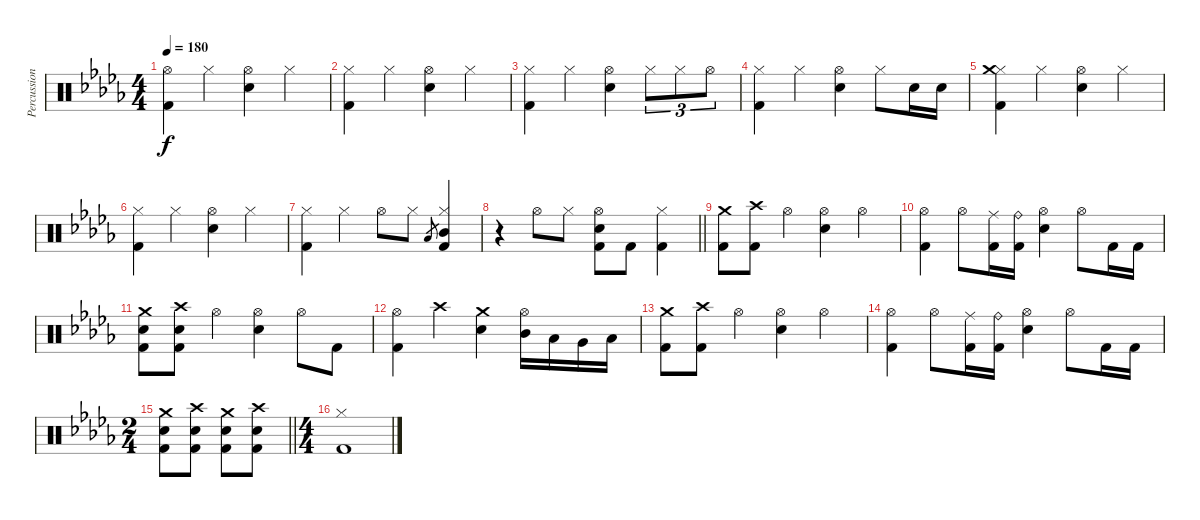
\track ("Percussions" "Percussion") {instrument percussion}
\staff {score}
\articulation defaults
\ts (4 4)
\tempo 180
\clef neutral
\ks bbminor
("Hi-Hat (open)" "Kick (hit) 2").4{dy f} "Hi-Hat (closed)".4 ("Hi-Hat (open)" "Electric Snare (hit)").4 "Hi-Hat (closed)".4 |
("Hi-Hat (closed)" "Kick (hit) 2").4 "Hi-Hat (closed)".4 ("Hi-Hat (open)" "Electric Snare (hit)").4 "Hi-Hat (closed)".4 |
("Hi-Hat (closed)" "Kick (hit) 2").4 "Hi-Hat (closed)".4 ("Hi-Hat (open)" "Electric Snare (hit)").4 "Hi-Hat (closed)".8{tu (3 2)} "Hi-Hat (closed)".8{tu (3 2)} "Hi-Hat (open)".8{tu (3 2)} |
("Hi-Hat (closed)" "Kick (hit) 2").4 "Hi-Hat (closed)".4 ("Hi-Hat (open)" "Electric Snare (hit)").4 "Hi-Hat (closed)".8 "Electric Snare (hit)".16 "Electric Snare (hit)".16 |
("Hi-Hat (closed)" "Crash medium (hit)" "Kick (hit) 2").4 "Hi-Hat (closed)".4 ("Hi-Hat (open)" "Electric Snare (hit)").4 "Hi-Hat (closed)".4 |
("Hi-Hat (closed)" "Kick (hit) 2").4 "Hi-Hat (closed)".4 ("Hi-Hat (open)" "Electric Snare (hit)").4 "Hi-Hat (closed)".4 |
("Hi-Hat (closed)" "Kick (hit) 2").4 "Hi-Hat (closed)".4 "Hi-Hat (open)".8 "Hi-Hat (closed)".8 "Low Tom (hit)".8{gr} ("Hi-Hat (closed)" "Mid Tom (hit)" "Kick (hit) 2").4 |
\barLineRight lightlight
r.4 "Hi-Hat (open)".8 "Hi-Hat (closed)".8 ("Hi-Hat (open)" "Electric Snare (hit)" "Kick (hit) 2").8 "Kick (hit) 2".8 ("Hi-Hat (closed)" "Kick (hit) 2").4 |
("Crash medium (hit)" "Kick (hit) 2").8 ("Crash high (hit)" "Kick (hit) 2").8 "Hi-Hat (open)".4 ("Hi-Hat (open)" "Electric Snare (hit)").4 "Hi-Hat (open)".4 |
("Hi-Hat (open)" "Kick (hit) 2").4 "Hi-Hat (open)".8 ("Ride (middle)" "Kick (hit) 2").16 ("Ride (bell)" "Kick (hit) 2").16 ("Hi-Hat (open)" "Electric Snare (hit)").4 "Hi-Hat (open)".8 "Kick (hit) 2".16 "Kick (hit) 2".16 |
("Crash medium (hit)" "Electric Snare (hit)" "Kick (hit) 2").8 ("Crash high (hit)" "Electric Snare (hit)" "Kick (hit) 2").8 "Hi-Hat (open)".4 ("Hi-Hat (open)" "Electric Snare (hit)").4 "Hi-Hat (open)".8 "Kick (hit) 2".8 |
("Hi-Hat (open)" "Kick (hit) 2").4 "Crash high (hit)".4 ("Crash medium (hit)" "Electric Snare (hit)").4 ("Hi-Hat (open)" "Mid Tom (hit)").16 "Low Tom (hit)".16 "Very Low Tom (hit)".16 "Low Floor Tom (hit)".16 |
("Crash medium (hit)" "Kick (hit) 2").8 ("Crash high (hit)" "Kick (hit) 2").8 "Hi-Hat (open)".4 ("Hi-Hat (open)" "Electric Snare (hit)").4 "Hi-Hat (open)".4 |
("Hi-Hat (open)" "Kick (hit) 2").4 "Hi-Hat (open)".8 ("Ride (middle)" "Kick (hit) 2").16 ("Ride (bell)" "Kick (hit) 2").16 ("Hi-Hat (open)" "Electric Snare (hit)").4 "Hi-Hat (open)".8 "Kick (hit) 2".16 "Kick (hit) 2".16 |
\ts (2 4)
\barLineRight lightlight
("Crash medium (hit)" "Electric Snare (hit)" "Kick (hit) 2").8 ("Crash high (hit)" "Electric Snare (hit)" "Kick (hit) 2").8 ("Crash medium (hit)" "Electric Snare (hit)" "Kick (hit) 2").8 ("Crash high (hit)" "Electric Snare (hit)" "Kick (hit) 2").8 |
\ts (4 4)
("Hi-Hat (closed)" "Kick (hit) 2").1
